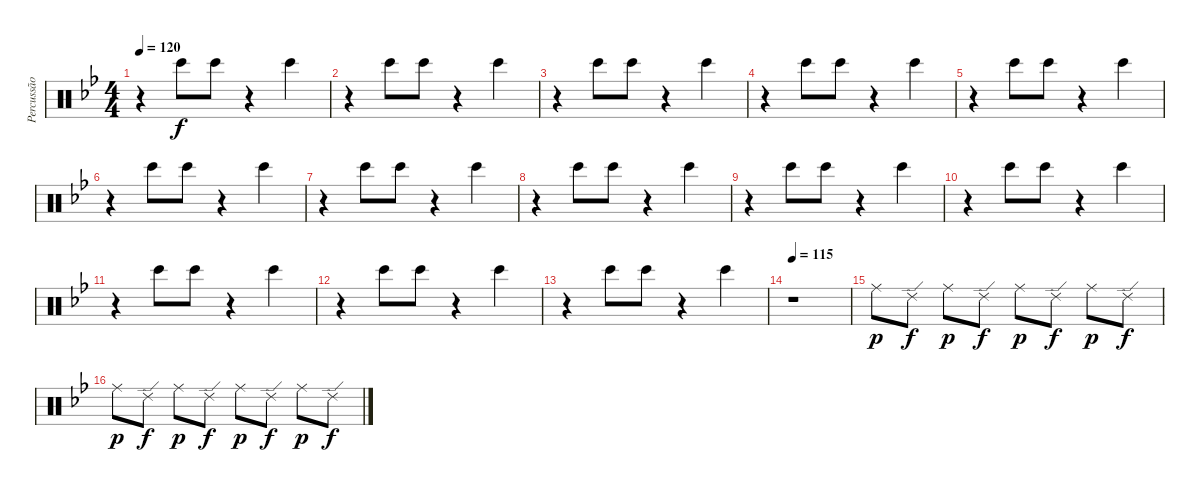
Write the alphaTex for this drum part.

\track ("Percussão" "Percussão") {instrument percussion}
\staff {score}
\articulation defaults
\ts (4 4)
\tempo 120
\clef neutral
\ks bb
r.4{dy f} "Bongo High (hit)".8 "Bongo High (hit)".8 r.4 "Bongo High (hit)".4 |
r.4 "Bongo High (hit)".8 "Bongo High (hit)".8 r.4 "Bongo High (hit)".4 |
r.4 "Bongo High (hit)".8 "Bongo High (hit)".8 r.4 "Bongo High (hit)".4 |
r.4 "Bongo High (hit)".8 "Bongo High (hit)".8 r.4 "Bongo High (hit)".4 |
r.4 "Bongo High (hit)".8 "Bongo High (hit)".8 r.4 "Bongo High (hit)".4 |
r.4 "Bongo High (hit)".8 "Bongo High (hit)".8 r.4 "Bongo High (hit)".4 |
r.4 "Bongo High (hit)".8 "Bongo High (hit)".8 r.4 "Bongo High (hit)".4 |
r.4 "Bongo High (hit)".8 "Bongo High (hit)".8 r.4 "Bongo High (hit)".4 |
r.4 "Bongo High (hit)".8 "Bongo High (hit)".8 r.4 "Bongo High (hit)".4 |
r.4 "Bongo High (hit)".8 "Bongo High (hit)".8 r.4 "Bongo High (hit)".4 |
r.4 "Bongo High (hit)".8 "Bongo High (hit)".8 r.4 "Bongo High (hit)".4 |
r.4 "Bongo High (hit)".8 "Bongo High (hit)".8 r.4 "Bongo High (hit)".4 |
r.4 "Bongo High (hit)".8 "Bongo High (hit)".8 r.4 "Bongo High (hit)".4 |
\tempo 115
r.1 |
"Ride (middle)".8{dy p} "Ride (edge) 2".8{dy f} "Ride (middle)".8{dy p} "Ride (edge) 2".8{dy f} "Ride (middle)".8{dy p} "Ride (edge) 2".8{dy f} "Ride (middle)".8{dy p} "Ride (edge) 2".8{dy f} |
"Ride (middle)".8{dy p} "Ride (edge) 2".8{dy f} "Ride (middle)".8{dy p} "Ride (edge) 2".8{dy f} "Ride (middle)".8{dy p} "Ride (edge) 2".8{dy f} "Ride (middle)".8{dy p} "Ride (edge) 2".8{dy f}
